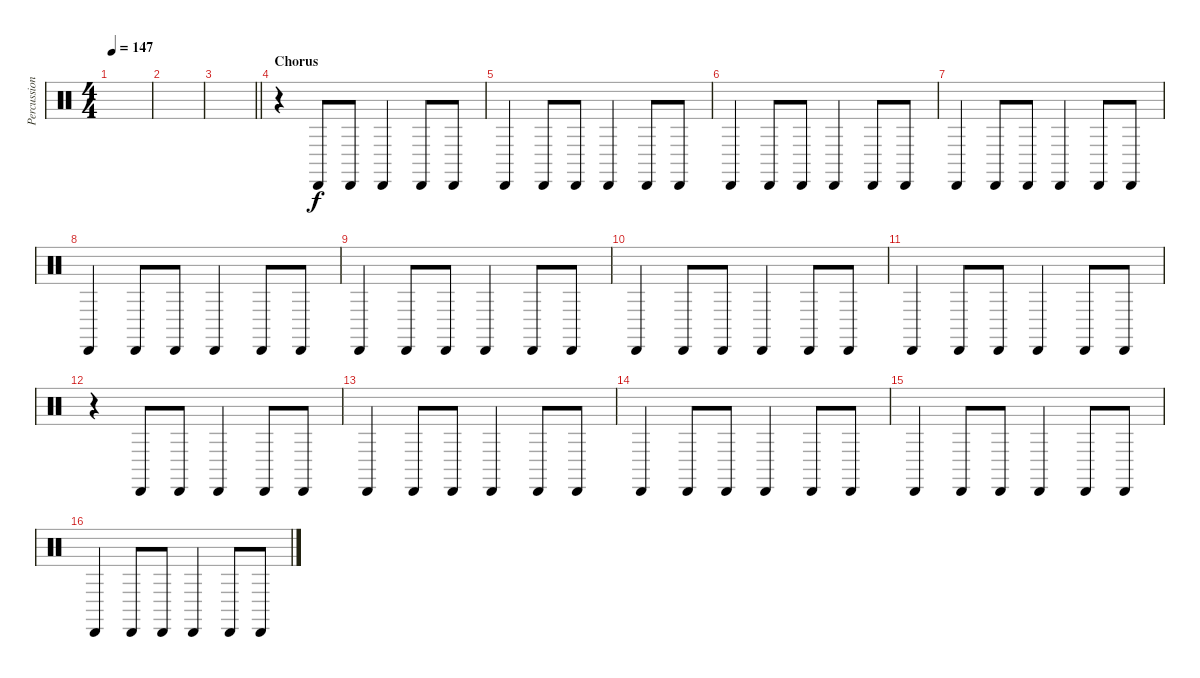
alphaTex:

\track ("Percussion (Matt Laug)" "Percussion") {instrument percussion}
\staff {score}
\articulation defaults
\ts (4 4)
\tempo 147
\clef neutral
\ks c
|
|
\barLineRight lightlight
|
\section ("" "Chorus")
r.4 "Cabasa (hit)".8 "Cabasa (hit)".8 "Cabasa (hit)".4 "Cabasa (hit)".8 "Cabasa (hit)".8 |
"Cabasa (hit)".4 "Cabasa (hit)".8 "Cabasa (hit)".8 "Cabasa (hit)".4 "Cabasa (hit)".8 "Cabasa (hit)".8 |
"Cabasa (hit)".4 "Cabasa (hit)".8 "Cabasa (hit)".8 "Cabasa (hit)".4 "Cabasa (hit)".8 "Cabasa (hit)".8 |
"Cabasa (hit)".4 "Cabasa (hit)".8 "Cabasa (hit)".8 "Cabasa (hit)".4 "Cabasa (hit)".8 "Cabasa (hit)".8 |
"Cabasa (hit)".4 "Cabasa (hit)".8 "Cabasa (hit)".8 "Cabasa (hit)".4 "Cabasa (hit)".8 "Cabasa (hit)".8 |
"Cabasa (hit)".4 "Cabasa (hit)".8 "Cabasa (hit)".8 "Cabasa (hit)".4 "Cabasa (hit)".8 "Cabasa (hit)".8 |
"Cabasa (hit)".4 "Cabasa (hit)".8 "Cabasa (hit)".8 "Cabasa (hit)".4 "Cabasa (hit)".8 "Cabasa (hit)".8 |
"Cabasa (hit)".4 "Cabasa (hit)".8 "Cabasa (hit)".8 "Cabasa (hit)".4 "Cabasa (hit)".8 "Cabasa (hit)".8 |
r.4 "Cabasa (hit)".8 "Cabasa (hit)".8 "Cabasa (hit)".4 "Cabasa (hit)".8 "Cabasa (hit)".8 |
"Cabasa (hit)".4 "Cabasa (hit)".8 "Cabasa (hit)".8 "Cabasa (hit)".4 "Cabasa (hit)".8 "Cabasa (hit)".8 |
"Cabasa (hit)".4 "Cabasa (hit)".8 "Cabasa (hit)".8 "Cabasa (hit)".4 "Cabasa (hit)".8 "Cabasa (hit)".8 |
"Cabasa (hit)".4 "Cabasa (hit)".8 "Cabasa (hit)".8 "Cabasa (hit)".4 "Cabasa (hit)".8 "Cabasa (hit)".8 |
"Cabasa (hit)".4 "Cabasa (hit)".8 "Cabasa (hit)".8 "Cabasa (hit)".4 "Cabasa (hit)".8 "Cabasa (hit)".8
